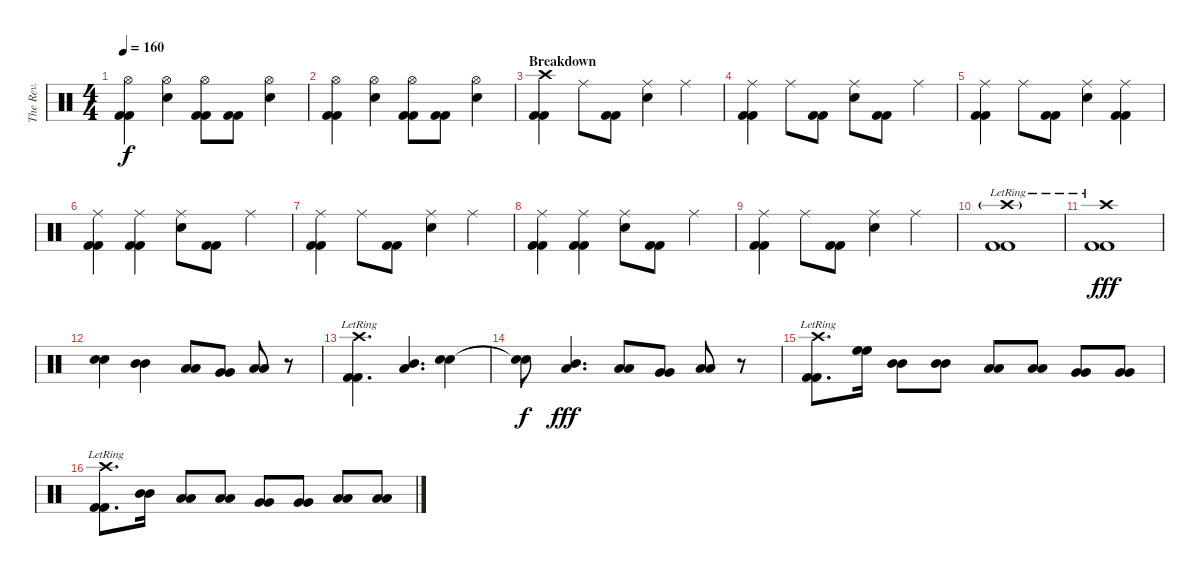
\track ("The Rev." "The Rev.") {instrument percussion}
\staff {score}
\articulation defaults
\ts (4 4)
\tempo 160
\clef neutral
\ks c
("Hi-Hat (open)" "Kick (hit) 2" "Kick (hit) 2").4{dy f} ("Hi-Hat (open)" "Electric Snare (hit)").4 ("Hi-Hat (open)" "Kick (hit) 2" "Kick (hit) 2").8 ("Kick (hit) 2" "Kick (hit) 2").8 ("Hi-Hat (open)" "Electric Snare (hit)").4 |
("Hi-Hat (open)" "Kick (hit) 2" "Kick (hit) 2").4 ("Hi-Hat (open)" "Electric Snare (hit)").4 ("Hi-Hat (open)" "Kick (hit) 2" "Kick (hit) 2").8 ("Kick (hit) 2" "Kick (hit) 2").8 ("Hi-Hat (open)" "Electric Snare (hit)").4 |
\section ("" "Breakdown")
("Crash high (hit)" "Kick (hit) 2" "Kick (hit) 2").4 "Ride (middle)".8 ("Kick (hit) 2" "Kick (hit) 2").8 ("Ride (middle)" "Electric Snare (hit)").4 "Ride (middle)".4 |
("Ride (middle)" "Kick (hit) 2" "Kick (hit) 2").4 "Ride (middle)".8 ("Kick (hit) 2" "Kick (hit) 2").8 ("Ride (middle)" "Electric Snare (hit)").8 ("Kick (hit) 2" "Kick (hit) 2").8 "Ride (middle)".4 |
("Ride (middle)" "Kick (hit) 2" "Kick (hit) 2").4 "Ride (middle)".8 ("Kick (hit) 2" "Kick (hit) 2").8 ("Ride (middle)" "Electric Snare (hit)").4 ("Ride (middle)" "Kick (hit) 2" "Kick (hit) 2").4 |
("Ride (middle)" "Kick (hit) 2" "Kick (hit) 2").4 ("Ride (middle)" "Kick (hit) 2" "Kick (hit) 2").4 ("Ride (middle)" "Electric Snare (hit)").8 ("Kick (hit) 2" "Kick (hit) 2").8 "Ride (middle)".4 |
("Ride (middle)" "Kick (hit) 2" "Kick (hit) 2").4 "Ride (middle)".8 ("Kick (hit) 2" "Kick (hit) 2").8 ("Ride (middle)" "Electric Snare (hit)").4 "Ride (middle)".4 |
("Ride (middle)" "Kick (hit) 2" "Kick (hit) 2").4 ("Ride (middle)" "Kick (hit) 2" "Kick (hit) 2").4 ("Ride (middle)" "Electric Snare (hit)").8 ("Kick (hit) 2" "Kick (hit) 2").8 "Ride (middle)".4 |
("Ride (middle)" "Kick (hit) 2" "Kick (hit) 2").4 "Ride (middle)".8 ("Kick (hit) 2" "Kick (hit) 2").8 ("Ride (middle)" "Electric Snare (hit)").4 "Ride (middle)".4 |
("Crash high (hit)"{g} "Kick (hit) 2" "Kick (hit) 2"{lr}).1 |
("Crash high (hit)"{lr} "Kick (hit) 2" "Kick (hit) 2").1{dy fff} |
("Electric Snare (hit)" "Electric Snare (hit)").4 ("Mid Tom (hit)" "Mid Tom (hit)").4 ("Low Tom (hit)" "Low Tom (hit)").8 ("Very Low Tom (hit)" "Very Low Tom (hit)").8 ("Low Floor Tom (hit)" "Low Floor Tom (hit)").8 r.8 |
("Crash high (hit)"{lr} "Kick (hit) 2" "Kick (hit) 2").4{d} ("Mid Tom (hit)" "Low Tom (hit)").4{d} ("Electric Snare (hit)" "Electric Snare (hit)").4 |
("Electric Snare (hit)"{t} "Electric Snare (hit)"{t}).8{dy f} ("Mid Tom (hit)" "Low Tom (hit)").4{d dy fff} ("Low Tom (hit)" "Low Tom (hit)").8 ("Very Low Tom (hit)" "Very Low Tom (hit)").8 ("Low Floor Tom (hit)" "Low Floor Tom (hit)").8 r.8 |
("Crash high (hit)"{lr} "Kick (hit) 2" "Kick (hit) 2").8{d} ("High Floor Tom (hit)" "High Floor Tom (hit)").16 ("Mid Tom (hit)" "Mid Tom (hit)").8 ("Mid Tom (hit)" "Mid Tom (hit)").8 ("Low Tom (hit)" "Low Tom (hit)").8 ("Low Tom (hit)" "Low Tom (hit)").8 ("Very Low Tom (hit)" "Very Low Tom (hit)").8 ("Very Low Tom (hit)" "Very Low Tom (hit)").8 |
("Crash high (hit)"{lr} "Kick (hit) 2" "Kick (hit) 2").8{d} ("Mid Tom (hit)" "Mid Tom (hit)").16 ("Low Tom (hit)" "Low Tom (hit)").8 ("Low Tom (hit)" "Low Tom (hit)").8 ("Very Low Tom (hit)" "Very Low Tom (hit)").8 ("Very Low Tom (hit)" "Very Low Tom (hit)").8 ("Low Floor Tom (hit)" "Low Floor Tom (hit)").8 ("Low Floor Tom (hit)" "Low Floor Tom (hit)").8
